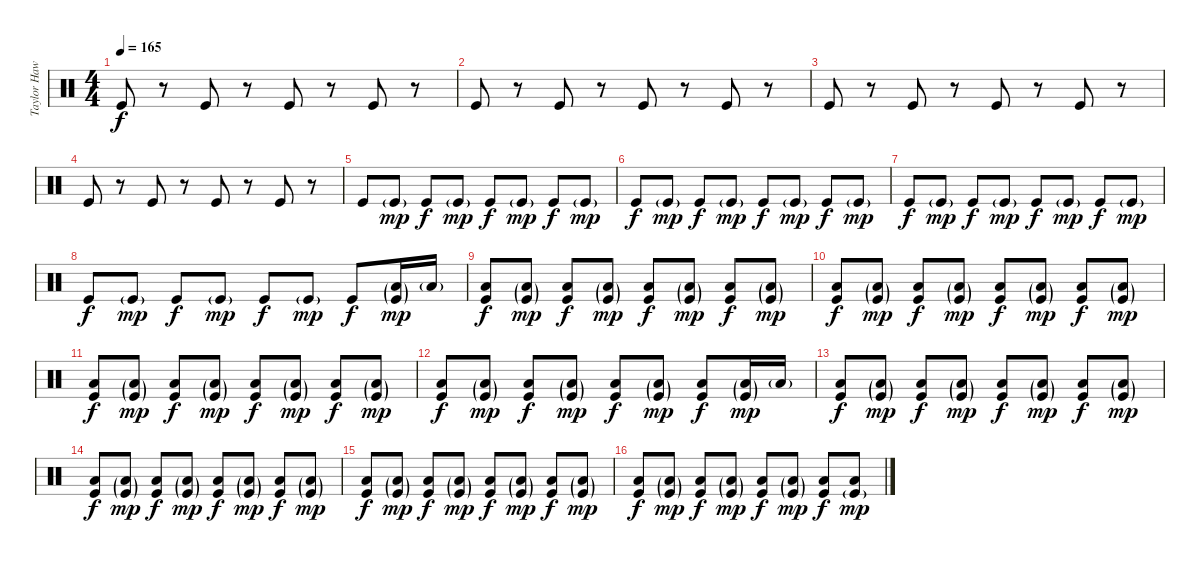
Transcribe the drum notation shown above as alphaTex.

\track ("Taylor Hawkins - Drums" "Taylor Haw") {instrument percussion}
\staff {score}
\articulation defaults
\ts (4 4)
\tempo 165
\clef neutral
\ks c "Kick (hit)".8{dy f}
r.8 "Kick (hit)".8 r.8 "Kick (hit)".8 r.8 "Kick (hit)".8 r.8 |
"Kick (hit)".8 r.8 "Kick (hit)".8 r.8 "Kick (hit)".8 r.8 "Kick (hit)".8 r.8 |
"Kick (hit)".8 r.8 "Kick (hit)".8 r.8 "Kick (hit)".8 r.8 "Kick (hit)".8 r.8 |
"Kick (hit)".8 r.8 "Kick (hit)".8 r.8 "Kick (hit)".8 r.8 "Kick (hit)".8 r.8 |
"Kick (hit)".8 "Kick (hit)"{g}.8{dy mp} "Kick (hit)".8{dy f} "Kick (hit)"{g}.8{dy mp} "Kick (hit)".8{dy f} "Kick (hit)"{g}.8{dy mp} "Kick (hit)".8{dy f} "Kick (hit)"{g}.8{dy mp} |
"Kick (hit)".8{dy f} "Kick (hit)"{g}.8{dy mp} "Kick (hit)".8{dy f} "Kick (hit)"{g}.8{dy mp} "Kick (hit)".8{dy f} "Kick (hit)"{g}.8{dy mp} "Kick (hit)".8{dy f} "Kick (hit)"{g}.8{dy mp} |
"Kick (hit)".8{dy f} "Kick (hit)"{g}.8{dy mp} "Kick (hit)".8{dy f} "Kick (hit)"{g}.8{dy mp} "Kick (hit)".8{dy f} "Kick (hit)"{g}.8{dy mp} "Kick (hit)".8{dy f} "Kick (hit)"{g}.8{dy mp} |
"Kick (hit)".8{dy f} "Kick (hit)"{g}.8{dy mp} "Kick (hit)".8{dy f} "Kick (hit)"{g}.8{dy mp} "Kick (hit)".8{dy f} "Kick (hit)"{g}.8{dy mp} "Kick (hit)".8{dy f} ("Low Tom (hit)"{g} "Kick (hit)"{g}).16{dy mp} "Low Tom (hit)"{g}.16 |
("Low Tom (hit)" "Kick (hit)").8{dy f} ("Low Tom (hit)"{g} "Kick (hit)"{g}).8{dy mp} ("Low Tom (hit)" "Kick (hit)").8{dy f} ("Low Tom (hit)"{g} "Kick (hit)"{g}).8{dy mp} ("Low Tom (hit)" "Kick (hit)").8{dy f} ("Low Tom (hit)"{g} "Kick (hit)"{g}).8{dy mp} ("Low Tom (hit)" "Kick (hit)").8{dy f} ("Low Tom (hit)"{g} "Kick (hit)"{g}).8{dy mp} |
("Low Tom (hit)" "Kick (hit)").8{dy f} ("Low Tom (hit)"{g} "Kick (hit)"{g}).8{dy mp} ("Low Tom (hit)" "Kick (hit)").8{dy f} ("Low Tom (hit)"{g} "Kick (hit)"{g}).8{dy mp} ("Low Tom (hit)" "Kick (hit)").8{dy f} ("Low Tom (hit)"{g} "Kick (hit)"{g}).8{dy mp} ("Low Tom (hit)" "Kick (hit)").8{dy f} ("Low Tom (hit)"{g} "Kick (hit)"{g}).8{dy mp} |
("Low Tom (hit)" "Kick (hit)").8{dy f} ("Low Tom (hit)"{g} "Kick (hit)"{g}).8{dy mp} ("Low Tom (hit)" "Kick (hit)").8{dy f} ("Low Tom (hit)"{g} "Kick (hit)"{g}).8{dy mp} ("Low Tom (hit)" "Kick (hit)").8{dy f} ("Low Tom (hit)"{g} "Kick (hit)"{g}).8{dy mp} ("Low Tom (hit)" "Kick (hit)").8{dy f} ("Low Tom (hit)"{g} "Kick (hit)"{g}).8{dy mp} |
("Low Tom (hit)" "Kick (hit)").8{dy f} ("Low Tom (hit)"{g} "Kick (hit)"{g}).8{dy mp} ("Low Tom (hit)" "Kick (hit)").8{dy f} ("Low Tom (hit)"{g} "Kick (hit)"{g}).8{dy mp} ("Low Tom (hit)" "Kick (hit)").8{dy f} ("Low Tom (hit)"{g} "Kick (hit)"{g}).8{dy mp} ("Low Tom (hit)" "Kick (hit)").8{dy f} ("Low Tom (hit)"{g} "Kick (hit)"{g}).16{dy mp} "Low Tom (hit)"{g}.16 |
("Low Tom (hit)" "Kick (hit)").8{dy f} ("Low Tom (hit)"{g} "Kick (hit)"{g}).8{dy mp} ("Low Tom (hit)" "Kick (hit)").8{dy f} ("Low Tom (hit)"{g} "Kick (hit)"{g}).8{dy mp} ("Low Tom (hit)" "Kick (hit)").8{dy f} ("Low Tom (hit)"{g} "Kick (hit)"{g}).8{dy mp} ("Low Tom (hit)" "Kick (hit)").8{dy f} ("Low Tom (hit)"{g} "Kick (hit)"{g}).8{dy mp} |
("Low Tom (hit)" "Kick (hit)").8{dy f} ("Low Tom (hit)"{g} "Kick (hit)"{g}).8{dy mp} ("Low Tom (hit)" "Kick (hit)").8{dy f} ("Low Tom (hit)"{g} "Kick (hit)"{g}).8{dy mp} ("Low Tom (hit)" "Kick (hit)").8{dy f} ("Low Tom (hit)"{g} "Kick (hit)"{g}).8{dy mp} ("Low Tom (hit)" "Kick (hit)").8{dy f} ("Low Tom (hit)"{g} "Kick (hit)"{g}).8{dy mp} |
("Low Tom (hit)" "Kick (hit)").8{dy f} ("Low Tom (hit)"{g} "Kick (hit)"{g}).8{dy mp} ("Low Tom (hit)" "Kick (hit)").8{dy f} ("Low Tom (hit)"{g} "Kick (hit)"{g}).8{dy mp} ("Low Tom (hit)" "Kick (hit)").8{dy f} ("Low Tom (hit)"{g} "Kick (hit)"{g}).8{dy mp} ("Low Tom (hit)" "Kick (hit)").8{dy f} ("Low Tom (hit)"{g} "Kick (hit)"{g}).8{dy mp} |
("Low Tom (hit)" "Kick (hit)").8{dy f} ("Low Tom (hit)"{g} "Kick (hit)"{g}).8{dy mp} ("Low Tom (hit)" "Kick (hit)").8{dy f} ("Low Tom (hit)"{g} "Kick (hit)"{g}).8{dy mp} ("Low Tom (hit)" "Kick (hit)").8{dy f} ("Low Tom (hit)"{g} "Kick (hit)"{g}).8{dy mp} ("Low Tom (hit)" "Kick (hit)").8{dy f} ("Low Tom (hit)" "Kick (hit)"{g}).8{dy mp}
